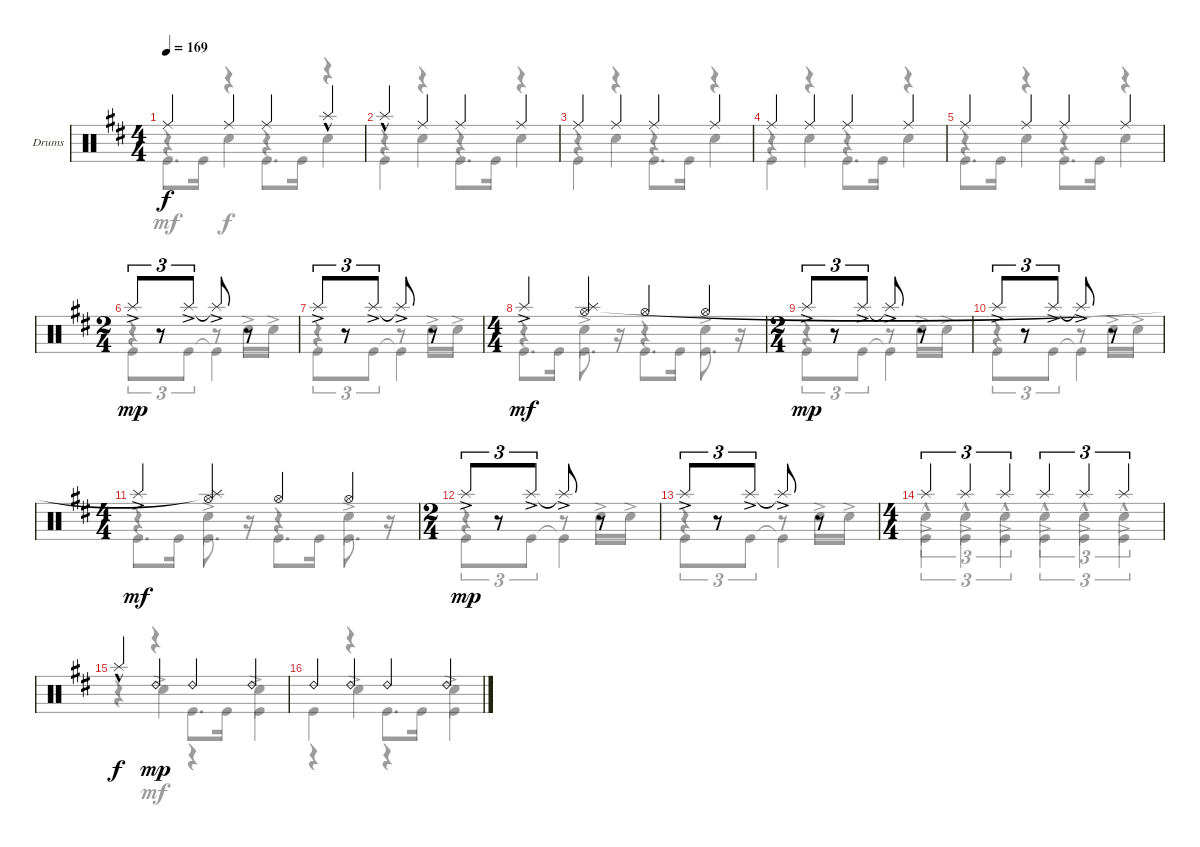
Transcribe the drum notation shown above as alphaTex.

\defaultSystemsLayout 4
\bracketExtendMode groupsimilarinstruments
\firstSystemTrackNameOrientation horizontal
\otherSystemsTrackNameOrientation horizontal
\track ("Drumkit (Wolf Gemora)" "Drums") {instrument percussion}
\staff {score}
\articulation defaults
\voice
\ts (4 4)
\tempo 169
\clef neutral
\ks bminor "Ride (middle)".4{dy f} "Ride (middle)".4 "Ride (middle)".4 "Splash (hit)"{hac}.4
|
"Splash (hit)"{hac}.4 "Ride (middle)".4 "Ride (middle)".4 "Ride (middle)".4 |
"Ride (middle)".4 "Ride (middle)".4 "Ride (middle)".4 "Ride (middle)".4 |
"Ride (middle)".4 "Ride (middle)".4 "Ride (middle)".4 "Ride (middle)".4 |
"Ride (middle)".4 "Ride (middle)".4 "Ride (middle)".4 "Ride (middle)".4 |
\ts (2 4)
"Splash (hit)"{ac}.8{tu (3 2) dy mp} r.8{tu (3 2)} "Splash (hit)"{ac}.8{tu (3 2)} "Splash (hit)"{ac t}.8 r.8 |
"Splash (hit)"{ac}.8{tu (3 2)} r.8{tu (3 2)} "Splash (hit)"{ac}.8{tu (3 2)} "Splash (hit)"{ac t}.8 r.8 |
\ts (4 4)
"Splash (hit)"{ac}.4{dy mf} ("Hi-Hat (open)" "Splash (hit)").4 "Hi-Hat (open)".4 "Hi-Hat (open)".4 |
\ts (2 4)
"Splash (hit)"{ac}.8{tu (3 2) dy mp} r.8{tu (3 2)} "Splash (hit)"{ac}.8{tu (3 2)} "Splash (hit)"{ac t}.8 r.8 |
"Splash (hit)"{ac}.8{tu (3 2)} r.8{tu (3 2)} "Splash (hit)"{ac}.8{tu (3 2)} "Splash (hit)"{ac t}.8 r.8 |
\ts (4 4)
"Splash (hit)"{ac}.4{dy mf} ("Hi-Hat (open)" "Splash (hit)"{t}).4 "Hi-Hat (open)".4 "Hi-Hat (open)".4 |
\ts (2 4)
"Splash (hit)"{ac}.8{tu (3 2) dy mp} r.8{tu (3 2)} "Splash (hit)"{ac}.8{tu (3 2)} "Splash (hit)"{ac t}.8 r.8 |
"Splash (hit)"{ac}.8{tu (3 2)} r.8{tu (3 2)} "Splash (hit)"{ac}.8{tu (3 2)} "Splash (hit)"{ac t}.8 r.8 |
\ts (4 4)
"Splash (hit)".4{tu (3 2)} "Splash (hit)".4{tu (3 2)} "Splash (hit)".4{tu (3 2)} "Splash (hit)".4{tu (3 2)} "Splash (hit)".4{tu (3 2)} "Splash (hit)".4{tu (3 2)} |
"Splash (hit)"{hac}.4{dy f} "Ride (bell) 2".4{dy mp} "Ride (bell) 2".4 "Ride (bell) 2".4 |
"Ride (bell) 2".4 "Ride (bell) 2".4 "Ride (bell) 2".4 "Ride (bell) 2".4
\voice
\clef neutral
\ottava regular
\simile none
\ks bminor "Kick (hit)".8{d dy mf} "Kick (hit)".16
r.4 "Kick (hit)".8{d} "Kick (hit)".16 r.4 |
"Kick (hit)".4 r.4 "Kick (hit)".8{d} "Kick (hit)".16 r.4 |
"Kick (hit)".4 r.4 "Kick (hit)".8{d} "Kick (hit)".16 r.4 |
"Kick (hit)".4 r.4 "Kick (hit)".8{d} "Kick (hit)".16 r.4 |
"Kick (hit)".8{d} "Kick (hit)".16 r.4 "Kick (hit)".8{d} "Kick (hit)".16 r.4 |
"Kick (hit)".8{tu (3 2)} r.8{tu (3 2)} "Kick (hit)".8{tu (3 2)} "Kick (hit)"{t}.4 |
"Kick (hit)".8{tu (3 2)} r.8{tu (3 2)} "Kick (hit)".8{tu (3 2)} "Kick (hit)"{t}.4 |
"Kick (hit)".8{d} "Kick (hit)".16 "Kick (hit)".8{d} r.16 "Kick (hit)".8{d} "Kick (hit)".16 "Kick (hit)".8{d} r.16 |
"Kick (hit)".8{tu (3 2)} r.8{tu (3 2)} "Kick (hit)".8{tu (3 2)} "Kick (hit)"{t}.4 |
"Kick (hit)".8{tu (3 2)} r.8{tu (3 2)} "Kick (hit)".8{tu (3 2)} "Kick (hit)"{t}.4 |
"Kick (hit)".8{d} "Kick (hit)".16 "Kick (hit)".8{d} r.16 "Kick (hit)".8{d} "Kick (hit)".16 "Kick (hit)".8{d} r.16 |
"Kick (hit)".8{tu (3 2)} r.8{tu (3 2)} "Kick (hit)".8{tu (3 2)} "Kick (hit)"{t}.4 |
"Kick (hit)".8{tu (3 2)} r.8{tu (3 2)} "Kick (hit)".8{tu (3 2)} "Kick (hit)"{t}.4 |
"Kick (hit)"{ac}.4{tu (3 2)} "Kick (hit)"{ac}.4{tu (3 2)} "Kick (hit)"{ac}.4{tu (3 2)} "Kick (hit)"{ac}.4{tu (3 2)} "Kick (hit)"{ac}.4{tu (3 2)} "Kick (hit)"{ac}.4{tu (3 2)} |
r.4 r.4 "Kick (hit)".8{d} "Kick (hit)".16 "Kick (hit)".4 |
"Kick (hit)".4 r.4 "Kick (hit)".8{d} "Kick (hit)".16 "Kick (hit)".4
\voice
\clef neutral
\ottava regular
\simile none
\ks bminor
r.4{dy f} "Snare (hit) 2".4 r.4 "Snare (hit) 2".4 |
r.4 "Snare (hit) 2".4 r.4 "Snare (hit) 2".4 |
r.4 "Snare (hit) 2".4 r.4 "Snare (hit) 2".4 |
r.4 "Snare (hit) 2".4 r.4 "Snare (hit) 2".4 |
r.4 "Snare (hit) 2".4 r.4 "Snare (hit) 2".4 |
r.4 r.8 "Snare (hit) 2"{ac}.16 "Snare (hit) 2"{ac}.16 |
r.4 r.8 "Snare (hit) 2"{ac}.16 "Snare (hit) 2"{ac}.16 |
r.4 "Snare (hit) 2"{ac}.4 r.4 "Snare (hit) 2"{ac}.4 |
r.4 r.8 "Snare (hit) 2"{ac}.16 "Snare (hit) 2"{ac}.16 |
r.4 r.8 "Snare (hit) 2"{ac}.16 "Snare (hit) 2"{ac}.16 |
r.4 "Snare (hit) 2"{ac}.4 r.4 "Snare (hit) 2"{ac}.4 |
r.4 r.8 "Snare (hit) 2"{ac}.16 "Snare (hit) 2"{ac}.16 |
r.4 r.8 "Snare (hit) 2"{ac}.16 "Snare (hit) 2"{ac}.16 |
"Snare (hit) 2"{hac}.4{tu (3 2)} "Snare (hit) 2"{hac}.4{tu (3 2)} "Snare (hit) 2"{hac}.4{tu (3 2)} "Snare (hit) 2"{hac}.4{tu (3 2)} "Snare (hit) 2"{hac}.4{tu (3 2)} "Snare (hit) 2"{hac}.4{tu (3 2)} |
r.4 "Snare (hit) 2"{ac}.4{dy mf} r.4 "Snare (hit) 2"{ac}.4 |
r.4 "Snare (hit) 2"{ac}.4 r.4 "Snare (hit) 2"{ac}.4
